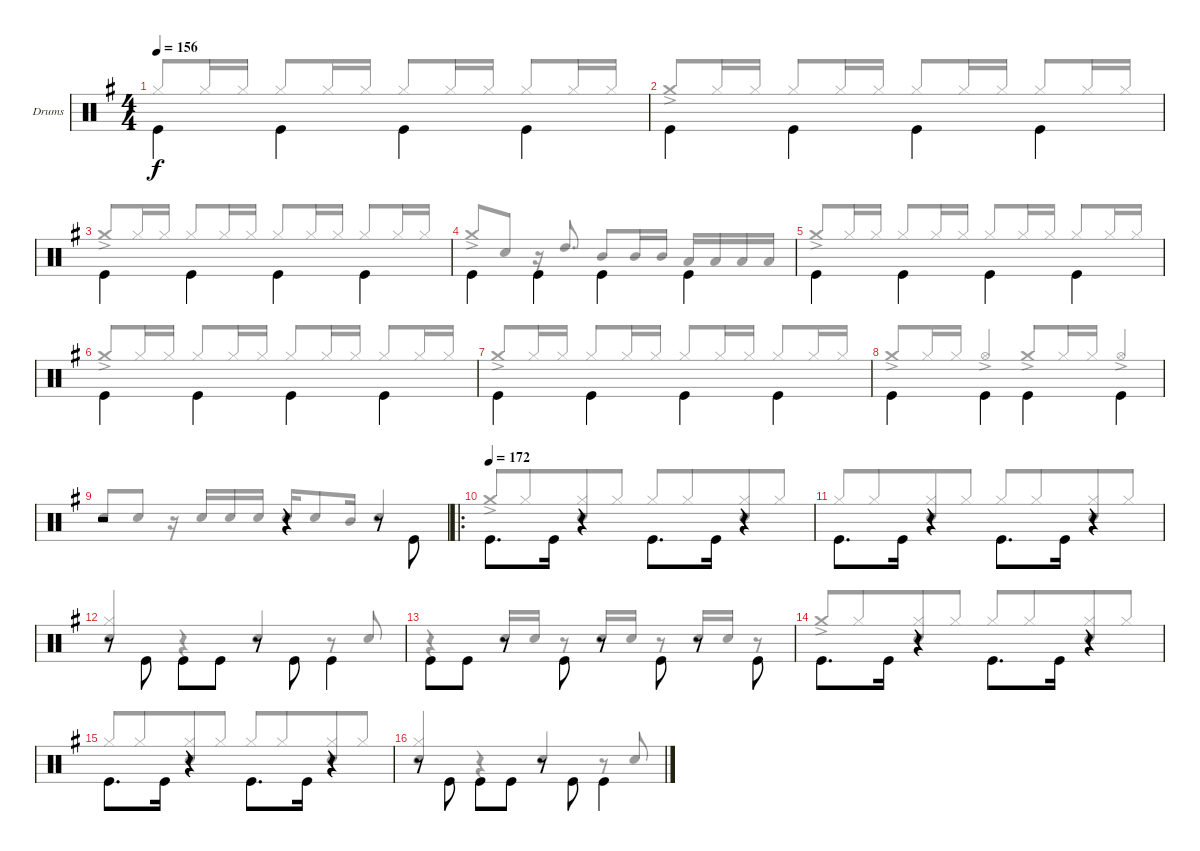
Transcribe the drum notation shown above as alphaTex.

\bracketExtendMode groupsimilarinstruments
\firstSystemTrackNameOrientation horizontal
\otherSystemsTrackNameOrientation horizontal
\track ("Drums" "Drums") {instrument percussion}
\staff {score}
\articulation defaults
\voice
\ts (4 4)
\tempo 156
\clef neutral
\scale
1.04288
\ks g "Kick (hit)".4{dy f beam invert} "Kick (hit)".4{beam invert} "Kick (hit)".4{beam invert} "Kick (hit)".4{beam invert}
|
\scale
0.957125 "Kick (hit)".4{beam invert} "Kick (hit)".4{beam invert} "Kick (hit)".4{beam invert} "Kick (hit)".4{beam invert} |
\scale
1.04288 "Kick (hit)".4{beam invert} "Kick (hit)".4{beam invert} "Kick (hit)".4{beam invert} "Kick (hit)".4{beam invert} |
\scale
0.957125 "Kick (hit)".4{beam invert} "Kick (hit)".4{beam invert} "Kick (hit)".4{beam invert} "Kick (hit)".4{beam invert} |
\scale
1.04288 "Kick (hit)".4{beam invert} "Kick (hit)".4{beam invert} "Kick (hit)".4{beam invert} "Kick (hit)".4{beam invert} |
\scale
0.957125 "Kick (hit)".4{beam invert} "Kick (hit)".4{beam invert} "Kick (hit)".4{beam invert} "Kick (hit)".4{beam invert} |
\scale
1.04288 "Kick (hit)".4{beam invert} "Kick (hit)".4{beam invert} "Kick (hit)".4{beam invert} "Kick (hit)".4{beam invert} |
\scale
0.957125 "Kick (hit)".4{beam invert} "Kick (hit)".4{beam invert} "Kick (hit)".4{beam invert} "Kick (hit)".4{beam invert} |
\scale
1.04288 r.2 r.4 r.8 "Kick (hit)".8{beam invert} |
\ro
\tempo 172
\scale
0.957125 "Kick (hit)".8{d beam invert} "Kick (hit)".16 r.4{beam invert} "Kick (hit)".8{d beam invert} "Kick (hit)".16 r.4{beam invert} |
\scale
1.04288 "Kick (hit)".8{d beam invert} "Kick (hit)".16 r.4{beam invert} "Kick (hit)".8{d beam invert} "Kick (hit)".16 r.4{beam invert} |
\scale
0.957125 r.8 "Kick (hit)".8{beam invert} "Kick (hit)".8{beam invert} "Kick (hit)".8 r.8{beam invert} "Kick (hit)".8{beam invert} "Kick (hit)".4{beam invert} |
\scale
1.04288 "Kick (hit)".8{beam invert} "Kick (hit)".8 r.8{beam invert} "Kick (hit)".8{beam invert} r.8{beam invert} "Kick (hit)".8{beam invert} r.8{beam invert} "Kick (hit)".8{beam invert} |
\scale
0.957125 "Kick (hit)".8{d beam invert} "Kick (hit)".16 r.4{beam invert} "Kick (hit)".8{d beam invert} "Kick (hit)".16 r.4{beam invert} |
\scale
1.04288 "Kick (hit)".8{d beam invert} "Kick (hit)".16 r.4{beam invert} "Kick (hit)".8{d beam invert} "Kick (hit)".16 r.4{beam invert} |
\scale
0.957125 r.8 "Kick (hit)".8{beam invert} "Kick (hit)".8{beam invert} "Kick (hit)".8 r.8{beam invert} "Kick (hit)".8{beam invert} "Kick (hit)".4{beam invert}
\voice
\clef neutral
\ottava regular
\simile none
\scale
1.04288
\ks g "Hi-Hat (closed)".8{dy f beam invert} "Hi-Hat (closed)".16 "Hi-Hat (closed)".16 "Hi-Hat (closed)".8{beam invert} "Hi-Hat (closed)".16 "Hi-Hat (closed)".16 "Hi-Hat (closed)".8{beam invert} "Hi-Hat (closed)".16 "Hi-Hat (closed)".16 "Hi-Hat (closed)".8{beam invert} "Hi-Hat (closed)".16 "Hi-Hat (closed)".16
|
\scale
0.957125 "Crash medium (hit)"{ac}.8{beam invert} "Hi-Hat (closed)".16 "Hi-Hat (closed)".16 "Hi-Hat (closed)".8{beam invert} "Hi-Hat (closed)".16 "Hi-Hat (closed)".16 "Hi-Hat (closed)".8{beam invert} "Hi-Hat (closed)".16 "Hi-Hat (closed)".16 "Hi-Hat (closed)".8{beam invert} "Hi-Hat (closed)".16 "Hi-Hat (closed)".16 |
\scale
1.04288 "Crash medium (hit)"{ac}.8{beam invert} "Hi-Hat (closed)".16 "Hi-Hat (closed)".16 "Hi-Hat (closed)".8{beam invert} "Hi-Hat (closed)".16 "Hi-Hat (closed)".16 "Hi-Hat (closed)".8{beam invert} "Hi-Hat (closed)".16 "Hi-Hat (closed)".16 "Hi-Hat (closed)".8{beam invert} "Hi-Hat (closed)".16 "Hi-Hat (closed)".16 |
\scale
0.957125 "Crash medium (hit)"{ac}.8{beam invert} "Snare (hit) 2".8 r.16 "High Tom (hit)".8{d beam invert} "Mid Tom (hit)".8{beam invert} "Mid Tom (hit)".16 "Mid Tom (hit)".16 "Low Tom (hit)".16{beam invert} "Low Tom (hit)".16 "Low Tom (hit)".16 "Low Tom (hit)".16 |
\scale
1.04288 "Crash medium (hit)"{ac}.8{beam invert} "Hi-Hat (closed)".16 "Hi-Hat (closed)".16 "Hi-Hat (closed)".8{beam invert} "Hi-Hat (closed)".16 "Hi-Hat (closed)".16 "Hi-Hat (closed)".8{beam invert} "Hi-Hat (closed)".16 "Hi-Hat (closed)".16 "Hi-Hat (closed)".8{beam invert} "Hi-Hat (closed)".16 "Hi-Hat (closed)".16 |
\scale
0.957125 "Crash medium (hit)"{ac}.8{beam invert} "Hi-Hat (closed)".16 "Hi-Hat (closed)".16 "Hi-Hat (closed)".8{beam invert} "Hi-Hat (closed)".16 "Hi-Hat (closed)".16 "Hi-Hat (closed)".8{beam invert} "Hi-Hat (closed)".16 "Hi-Hat (closed)".16 "Hi-Hat (closed)".8{beam invert} "Hi-Hat (closed)".16 "Hi-Hat (closed)".16 |
\scale
1.04288 "Crash medium (hit)"{ac}.8{beam invert} "Hi-Hat (closed)".16 "Hi-Hat (closed)".16 "Hi-Hat (closed)".8{beam invert} "Hi-Hat (closed)".16 "Hi-Hat (closed)".16 "Hi-Hat (closed)".8{beam invert} "Hi-Hat (closed)".16 "Hi-Hat (closed)".16 "Hi-Hat (closed)".8{beam invert} "Hi-Hat (closed)".16 "Hi-Hat (closed)".16 |
\scale
0.957125 "Crash medium (hit)"{ac}.8{beam invert} "Hi-Hat (closed)".16 "Hi-Hat (closed)".16 "Hi-Hat (open)"{ac}.4{beam invert} "Crash medium (hit)"{ac}.8{beam invert} "Hi-Hat (closed)".16 "Hi-Hat (closed)".16 "Hi-Hat (open)"{ac}.4{beam invert} |
\scale
1.04288 "Snare (hit) 2".8{beam invert} "Snare (hit) 2".8 r.16{beam invert} "Snare (hit) 2".16{beam invert} "Snare (hit) 2".16 "Snare (hit) 2".16 "Snare (hit) 2".16{beam invert} "Snare (hit) 2".8 "Mid Tom (hit)".16 "Snare (hit) 2".4{beam invert} |
\scale
0.957125 "Crash medium (hit)"{ac}.8{beam invert beam merge} "Hi-Hat (closed)".8{beam merge} ("Hi-Hat (closed)" "Snare (hit) 2").8{beam merge} "Hi-Hat (closed)".8{beam split} "Hi-Hat (closed)".8{beam invert beam merge} "Hi-Hat (closed)".8{beam merge} ("Hi-Hat (closed)" "Snare (hit) 2").8{beam merge} "Hi-Hat (closed)".8{beam merge} |
\scale
1.04288 "Hi-Hat (closed)".8{beam invert beam merge} "Hi-Hat (closed)".8{beam merge} ("Hi-Hat (closed)" "Snare (hit) 2").8{beam merge} "Hi-Hat (closed)".8{beam split} "Hi-Hat (closed)".8{beam invert beam merge} "Hi-Hat (closed)".8{beam merge} ("Hi-Hat (closed)" "Snare (hit) 2").8{beam merge} "Hi-Hat (closed)".8{beam merge} |
\scale
0.957125 ("Hi-Hat (closed)" "Snare (hit) 2").4{beam invert} r.4 "Snare (hit) 2".4{beam invert} r.8 "Snare (hit) 2".8{beam invert} |
\scale
1.04288 r.4 "Snare (hit) 2".16{beam invert} "Snare (hit) 2".16 r.8 "Snare (hit) 2".16{beam invert} "Snare (hit) 2".16 r.8 "Snare (hit) 2".16{beam invert} "Snare (hit) 2".16 r.8 |
\scale
0.957125 "Crash medium (hit)"{ac}.8{beam invert beam merge} "Hi-Hat (closed)".8{beam merge} ("Hi-Hat (closed)" "Snare (hit) 2").8{beam merge} "Hi-Hat (closed)".8{beam split} "Hi-Hat (closed)".8{beam invert beam merge} "Hi-Hat (closed)".8{beam merge} ("Hi-Hat (closed)" "Snare (hit) 2").8{beam merge} "Hi-Hat (closed)".8{beam merge} |
\scale
1.04288 "Hi-Hat (closed)".8{beam invert beam merge} "Hi-Hat (closed)".8{beam merge} ("Hi-Hat (closed)" "Snare (hit) 2").8{beam merge} "Hi-Hat (closed)".8{beam split} "Hi-Hat (closed)".8{beam invert beam merge} "Hi-Hat (closed)".8{beam merge} ("Hi-Hat (closed)" "Snare (hit) 2").8{beam merge} "Hi-Hat (closed)".8{beam merge} |
\scale
0.957125 ("Hi-Hat (closed)" "Snare (hit) 2").4{beam invert} r.4 "Snare (hit) 2".4{beam invert} r.8 "Snare (hit) 2".8{beam invert}
